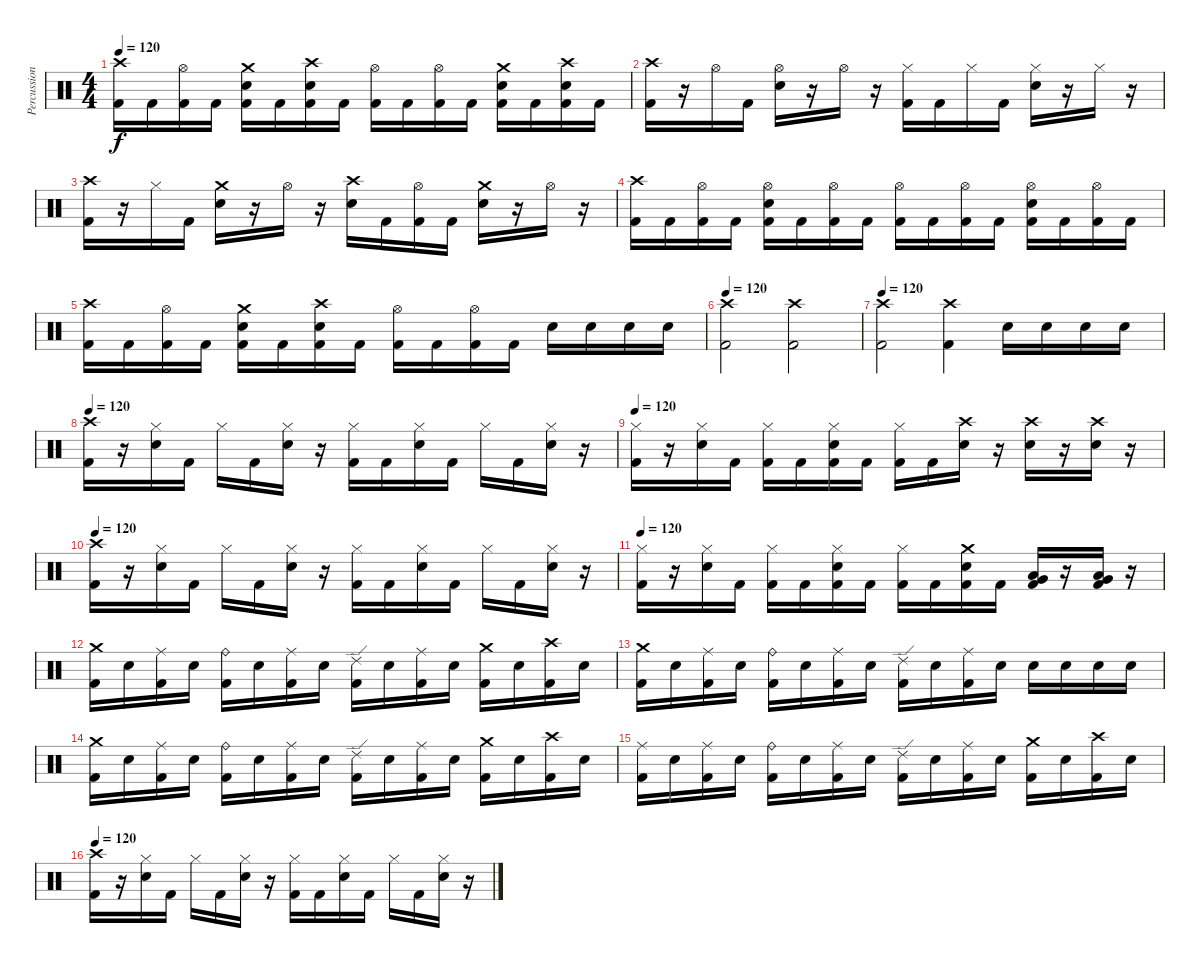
\track ("Percussion" "Percussion") {instrument percussion}
\staff {score}
\articulation defaults
\ts (4 4)
\tempo 120
\clef neutral
\ks c
("Crash high (hit)" "Kick (hit) 2").16{dy f} "Kick (hit) 2".16 ("Hi-Hat (open)" "Kick (hit) 2").16 "Kick (hit) 2".16 ("Crash medium (hit)" "Snare (hit) 2" "Kick (hit) 2").16 "Kick (hit) 2".16 ("Crash high (hit)" "Snare (hit) 2" "Kick (hit) 2").16 "Kick (hit) 2".16 ("Hi-Hat (open)" "Kick (hit) 2").16 "Kick (hit) 2".16 ("Hi-Hat (open)" "Kick (hit) 2").16 "Kick (hit) 2".16 ("Crash medium (hit)" "Snare (hit) 2" "Kick (hit) 2").16 "Kick (hit) 2".16 ("Crash high (hit)" "Snare (hit) 2" "Kick (hit) 2").16 "Kick (hit) 2".16 |
("Crash high (hit)" "Kick (hit) 2").16 r.16 "Hi-Hat (open)".16 "Kick (hit) 2".16 ("Hi-Hat (open)" "Snare (hit) 2").16 r.16 "Hi-Hat (open)".16 r.16 ("Hi-Hat (closed)" "Kick (hit) 2").16 "Kick (hit) 2".16 "Hi-Hat (closed)".16 "Kick (hit) 2".16 ("Hi-Hat (closed)" "Snare (hit) 2").16 r.16 "Hi-Hat (closed)".16 r.16 |
("Crash high (hit)" "Kick (hit) 2").16 r.16 "Hi-Hat (closed)".16 "Kick (hit) 2".16 ("Crash medium (hit)" "Snare (hit) 2").16 r.16 "Hi-Hat (open)".16 r.16 ("Crash high (hit)" "Snare (hit) 2").16 "Kick (hit) 2".16 ("Hi-Hat (open)" "Kick (hit) 2").16 "Kick (hit) 2".16 ("Crash medium (hit)" "Snare (hit) 2").16 r.16 "Hi-Hat (open)".16 r.16 |
("Crash high (hit)" "Kick (hit) 2").16 "Kick (hit) 2".16 ("Hi-Hat (open)" "Kick (hit) 2").16 "Kick (hit) 2".16 ("Hi-Hat (open)" "Snare (hit) 2" "Kick (hit) 2").16 "Kick (hit) 2".16 ("Hi-Hat (open)" "Kick (hit) 2").16 "Kick (hit) 2".16 ("Hi-Hat (open)" "Kick (hit) 2").16 "Kick (hit) 2".16 ("Hi-Hat (open)" "Kick (hit) 2").16 "Kick (hit) 2".16 ("Hi-Hat (open)" "Snare (hit) 2" "Kick (hit) 2").16 "Kick (hit) 2".16 ("Hi-Hat (open)" "Kick (hit) 2").16 "Kick (hit) 2".16 |
("Crash high (hit)" "Kick (hit) 2").16 "Kick (hit) 2".16 ("Hi-Hat (open)" "Kick (hit) 2").16 "Kick (hit) 2".16 ("Crash medium (hit)" "Snare (hit) 2" "Kick (hit) 2").16 "Kick (hit) 2".16 ("Crash high (hit)" "Snare (hit) 2" "Kick (hit) 2").16 "Kick (hit) 2".16 ("Hi-Hat (open)" "Kick (hit) 2").16 "Kick (hit) 2".16 ("Hi-Hat (open)" "Kick (hit) 2").16 "Kick (hit) 2".16 "Snare (hit) 2".16 "Snare (hit) 2".16 "Snare (hit) 2".16 "Snare (hit) 2".16 |
\tempo 120
("Crash high (hit)" "Kick (hit) 2").2 ("Crash high (hit)" "Kick (hit) 2").2 |
\tempo 120
("Crash high (hit)" "Kick (hit) 2").2 ("Crash high (hit)" "Kick (hit) 2").4 "Snare (hit) 2".16 "Snare (hit) 2".16 "Snare (hit) 2".16 "Snare (hit) 2".16 |
\tempo 120
("Crash high (hit)" "Kick (hit) 2").16 r.16 ("Hi-Hat (closed)" "Snare (hit) 2").16 "Kick (hit) 2".16 "Hi-Hat (closed)".16 "Kick (hit) 2".16 ("Hi-Hat (closed)" "Snare (hit) 2").16 r.16 ("Hi-Hat (closed)" "Kick (hit) 2").16 "Kick (hit) 2".16 ("Hi-Hat (closed)" "Snare (hit) 2").16 "Kick (hit) 2".16 "Hi-Hat (closed)".16 "Kick (hit) 2".16 ("Hi-Hat (closed)" "Snare (hit) 2").16 r.16 |
\tempo 120
("Hi-Hat (closed)" "Kick (hit) 2").16 r.16 ("Hi-Hat (closed)" "Snare (hit) 2").16 "Kick (hit) 2".16 ("Hi-Hat (closed)" "Kick (hit) 2").16 "Kick (hit) 2".16 ("Hi-Hat (closed)" "Snare (hit) 2" "Kick (hit) 2").16 "Kick (hit) 2".16 ("Hi-Hat (closed)" "Kick (hit) 2").16 "Kick (hit) 2".16 ("Crash high (hit)" "Snare (hit) 2").16 r.16 ("Crash high (hit)" "Snare (hit) 2").16 r.16 ("Crash high (hit)" "Snare (hit) 2").16 r.16 |
\tempo 120
("Crash high (hit)" "Kick (hit) 2").16 r.16 ("Hi-Hat (closed)" "Snare (hit) 2").16 "Kick (hit) 2".16 "Hi-Hat (closed)".16 "Kick (hit) 2".16 ("Hi-Hat (closed)" "Snare (hit) 2").16 r.16 ("Hi-Hat (closed)" "Kick (hit) 2").16 "Kick (hit) 2".16 ("Hi-Hat (closed)" "Snare (hit) 2").16 "Kick (hit) 2".16 "Hi-Hat (closed)".16 "Kick (hit) 2".16 ("Hi-Hat (closed)" "Snare (hit) 2").16 r.16 |
\tempo 120
("Hi-Hat (closed)" "Kick (hit) 2").16 r.16 ("Hi-Hat (closed)" "Snare (hit) 2").16 "Kick (hit) 2".16 ("Hi-Hat (closed)" "Kick (hit) 2").16 "Kick (hit) 2".16 ("Hi-Hat (closed)" "Snare (hit) 2" "Kick (hit) 2").16 "Kick (hit) 2".16 ("Hi-Hat (closed)" "Kick (hit) 2").16 "Kick (hit) 2".16 ("Crash medium (hit)" "Snare (hit) 2" "Kick (hit) 2").16 "Kick (hit) 2".16 ("Low Tom (hit)" "Very Low Tom (hit)" "Kick (hit) 2").16 r.16 ("Very Low Tom (hit)" "Low Floor Tom (hit)" "Kick (hit) 2").16 r.16 |
("Crash medium (hit)" "Kick (hit) 2").16 "Snare (hit) 2".16 ("Ride (middle)" "Kick (hit) 2").16 "Snare (hit) 2".16 ("Ride (bell)" "Kick (hit) 2").16 "Snare (hit) 2".16 ("Ride (middle)" "Kick (hit) 2").16 "Snare (hit) 2".16 ("Ride (edge) 2" "Kick (hit) 2").16 "Snare (hit) 2".16 ("Ride (middle)" "Kick (hit) 2").16 "Snare (hit) 2".16 ("Crash medium (hit)" "Kick (hit) 2").16 "Snare (hit) 2".16 ("Crash high (hit)" "Kick (hit) 2").16 "Snare (hit) 2".16 |
("Crash medium (hit)" "Kick (hit) 2").16 "Snare (hit) 2".16 ("Ride (middle)" "Kick (hit) 2").16 "Snare (hit) 2".16 ("Ride (bell)" "Kick (hit) 2").16 "Snare (hit) 2".16 ("Ride (middle)" "Kick (hit) 2").16 "Snare (hit) 2".16 ("Ride (edge) 2" "Kick (hit) 2").16 "Snare (hit) 2".16 ("Ride (middle)" "Kick (hit) 2").16 "Snare (hit) 2".16 "Snare (hit) 2".16 "Snare (hit) 2".16 "Snare (hit) 2".16 "Snare (hit) 2".16 |
("Crash medium (hit)" "Kick (hit) 2").16 "Snare (hit) 2".16 ("Ride (middle)" "Kick (hit) 2").16 "Snare (hit) 2".16 ("Ride (bell)" "Kick (hit) 2").16 "Snare (hit) 2".16 ("Ride (middle)" "Kick (hit) 2").16 "Snare (hit) 2".16 ("Ride (edge) 2" "Kick (hit) 2").16 "Snare (hit) 2".16 ("Ride (middle)" "Kick (hit) 2").16 "Snare (hit) 2".16 ("Crash medium (hit)" "Kick (hit) 2").16 "Snare (hit) 2".16 ("Crash high (hit)" "Kick (hit) 2").16 "Snare (hit) 2".16 |
("Ride (middle)" "Kick (hit) 2").16 "Snare (hit) 2".16 ("Ride (middle)" "Kick (hit) 2").16 "Snare (hit) 2".16 ("Ride (bell)" "Kick (hit) 2").16 "Snare (hit) 2".16 ("Ride (middle)" "Kick (hit) 2").16 "Snare (hit) 2".16 ("Ride (edge) 2" "Kick (hit) 2").16 "Snare (hit) 2".16 ("Ride (middle)" "Kick (hit) 2").16 "Snare (hit) 2".16 ("Crash medium (hit)" "Kick (hit) 2").16 "Snare (hit) 2".16 ("Crash high (hit)" "Kick (hit) 2").16 "Snare (hit) 2".16 |
\tempo 120
("Crash high (hit)" "Kick (hit) 2").16 r.16 ("Hi-Hat (closed)" "Snare (hit) 2").16 "Kick (hit) 2".16 "Hi-Hat (closed)".16 "Kick (hit) 2".16 ("Hi-Hat (closed)" "Snare (hit) 2").16 r.16 ("Hi-Hat (closed)" "Kick (hit) 2").16 "Kick (hit) 2".16 ("Hi-Hat (closed)" "Snare (hit) 2").16 "Kick (hit) 2".16 "Hi-Hat (closed)".16 "Kick (hit) 2".16 ("Hi-Hat (closed)" "Snare (hit) 2").16 r.16
